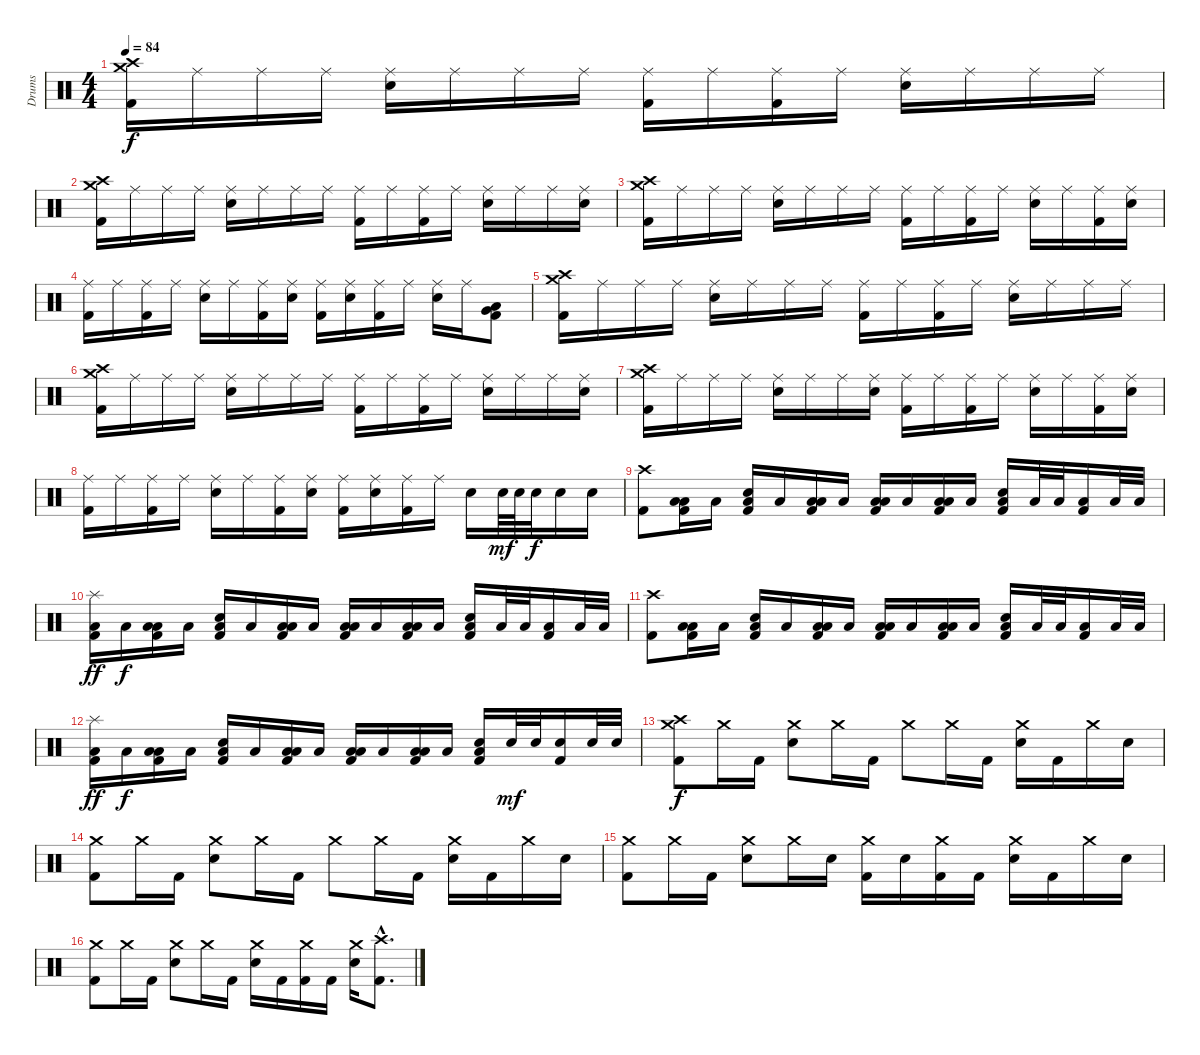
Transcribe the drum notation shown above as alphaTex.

\track ("Drums" "Drums") {instrument percussion}
\staff {score}
\articulation defaults
\ts (4 4)
\tempo 84
\clef neutral
\ks c
("Crash high (hit)" "Crash medium (hit)" "Kick (hit) 2").16{dy f} "Ride (middle)".16 "Ride (middle)".16 "Ride (middle)".16 ("Ride (middle)" "Snare (hit) 2").16 "Ride (middle)".16 "Ride (middle)".16 "Ride (middle)".16 ("Ride (middle)" "Kick (hit) 2").16 "Ride (middle)".16 ("Ride (middle)" "Kick (hit) 2").16 "Ride (middle)".16 ("Ride (middle)" "Snare (hit) 2").16 "Ride (middle)".16 "Ride (middle)".16 "Ride (middle)".16 |
("Crash high (hit)" "Crash medium (hit)" "Kick (hit) 2").16 "Ride (middle)".16 "Ride (middle)".16 "Ride (middle)".16 ("Ride (middle)" "Snare (hit) 2").16 "Ride (middle)".16 "Ride (middle)".16 "Ride (middle)".16 ("Ride (middle)" "Kick (hit) 2").16 "Ride (middle)".16 ("Ride (middle)" "Kick (hit) 2").16 "Ride (middle)".16 ("Ride (middle)" "Snare (hit) 2").16 "Ride (middle)".16 "Ride (middle)".16 ("Ride (middle)" "Snare (hit) 2").16 |
("Crash high (hit)" "Crash medium (hit)" "Kick (hit) 2").16 "Ride (middle)".16 "Ride (middle)".16 "Ride (middle)".16 ("Ride (middle)" "Snare (hit) 2").16 "Ride (middle)".16 "Ride (middle)".16 "Ride (middle)".16 ("Ride (middle)" "Kick (hit) 2").16 "Ride (middle)".16 ("Ride (middle)" "Kick (hit) 2").16 "Ride (middle)".16 ("Ride (middle)" "Snare (hit) 2").16 "Ride (middle)".16 ("Ride (middle)" "Kick (hit) 2").16 ("Ride (middle)" "Snare (hit) 2").16 |
("Ride (middle)" "Kick (hit) 2").16 "Ride (middle)".16 ("Ride (middle)" "Kick (hit) 2").16 "Ride (middle)".16 ("Ride (middle)" "Snare (hit) 2").16 "Ride (middle)".16 ("Ride (middle)" "Kick (hit) 2").16 ("Ride (middle)" "Snare (hit) 2").16 ("Ride (middle)" "Kick (hit) 2").16 ("Ride (middle)" "Snare (hit) 2").16 ("Ride (middle)" "Kick (hit) 2").16 "Ride (middle)".16 ("Ride (middle)" "Snare (hit) 2").16 "Ride (middle)".16 ("Very Low Tom (hit)" "Low Floor Tom (hit)" "Kick (hit) 2").8 |
("Crash high (hit)" "Crash medium (hit)" "Kick (hit) 2").16 "Ride (middle)".16 "Ride (middle)".16 "Ride (middle)".16 ("Ride (middle)" "Snare (hit) 2").16 "Ride (middle)".16 "Ride (middle)".16 "Ride (middle)".16 ("Ride (middle)" "Kick (hit) 2").16 "Ride (middle)".16 ("Ride (middle)" "Kick (hit) 2").16 "Ride (middle)".16 ("Ride (middle)" "Snare (hit) 2").16 "Ride (middle)".16 "Ride (middle)".16 "Ride (middle)".16 |
("Crash high (hit)" "Crash medium (hit)" "Kick (hit) 2").16 "Ride (middle)".16 "Ride (middle)".16 "Ride (middle)".16 ("Ride (middle)" "Snare (hit) 2").16 "Ride (middle)".16 "Ride (middle)".16 "Ride (middle)".16 ("Ride (middle)" "Kick (hit) 2").16 "Ride (middle)".16 ("Ride (middle)" "Kick (hit) 2").16 "Ride (middle)".16 ("Ride (middle)" "Snare (hit) 2").16 "Ride (middle)".16 "Ride (middle)".16 ("Ride (middle)" "Snare (hit) 2").16 |
("Crash high (hit)" "Crash medium (hit)" "Kick (hit) 2").16 "Ride (middle)".16 "Ride (middle)".16 "Ride (middle)".16 ("Ride (middle)" "Snare (hit) 2").16 "Ride (middle)".16 "Ride (middle)".16 ("Ride (middle)" "Snare (hit) 2").16 ("Ride (middle)" "Kick (hit) 2").16 "Ride (middle)".16 ("Ride (middle)" "Kick (hit) 2").16 "Ride (middle)".16 ("Ride (middle)" "Snare (hit) 2").16 "Ride (middle)".16 ("Ride (middle)" "Kick (hit) 2").16 ("Ride (middle)" "Snare (hit) 2").16 |
("Ride (middle)" "Kick (hit) 2").16 "Ride (middle)".16 ("Ride (middle)" "Kick (hit) 2").16 "Ride (middle)".16 ("Ride (middle)" "Snare (hit) 2").16 "Ride (middle)".16 ("Ride (middle)" "Kick (hit) 2").16 ("Ride (middle)" "Snare (hit) 2").16 ("Ride (middle)" "Kick (hit) 2").16 ("Ride (middle)" "Snare (hit) 2").16 ("Ride (middle)" "Kick (hit) 2").16 "Ride (middle)".16 "Snare (hit) 2".16 "Snare (hit) 2".64{dy mf} "Snare (hit) 2".64 "Snare (hit) 2".32{dy f} "Snare (hit) 2".16 "Snare (hit) 2".16 |
("Crash high (hit)" "Kick (hit) 2").8 ("Low Tom (hit)" "Low Floor Tom (hit)" "Kick (hit) 2").16 "Low Floor Tom (hit)".16 ("Snare (hit) 2" "Low Floor Tom (hit)" "Kick (hit) 2").16 "Low Floor Tom (hit)".16 ("Low Tom (hit)" "Low Floor Tom (hit)" "Kick (hit) 2").16 "Low Floor Tom (hit)".16 ("Low Tom (hit)" "Low Floor Tom (hit)" "Kick (hit) 2").16 "Low Floor Tom (hit)".16 ("Low Tom (hit)" "Low Floor Tom (hit)" "Kick (hit) 2").16 "Low Floor Tom (hit)".16 ("Snare (hit) 2" "Low Floor Tom (hit)" "Kick (hit) 2").16 "Low Tom (hit)".32 "Low Tom (hit)".32 ("Low Tom (hit)" "Kick (hit) 2").16 "Low Tom (hit)".32 "Low Tom (hit)".32 |
("Splash (hit)" "Low Floor Tom (hit)" "Kick (hit) 2").16{dy ff} "Low Floor Tom (hit)".16{dy f} ("Low Tom (hit)" "Low Floor Tom (hit)" "Kick (hit) 2").16 "Low Floor Tom (hit)".16 ("Snare (hit) 2" "Low Floor Tom (hit)" "Kick (hit) 2").16 "Low Floor Tom (hit)".16 ("Low Tom (hit)" "Low Floor Tom (hit)" "Kick (hit) 2").16 "Low Floor Tom (hit)".16 ("Low Tom (hit)" "Low Floor Tom (hit)" "Kick (hit) 2").16 "Low Floor Tom (hit)".16 ("Low Tom (hit)" "Low Floor Tom (hit)" "Kick (hit) 2").16 "Low Floor Tom (hit)".16 ("Snare (hit) 2" "Low Floor Tom (hit)" "Kick (hit) 2").16 "Low Tom (hit)".32 "Low Tom (hit)".32 ("Low Tom (hit)" "Kick (hit) 2").16 "Low Tom (hit)".32 "Low Tom (hit)".32 |
("Crash high (hit)" "Kick (hit) 2").8 ("Low Tom (hit)" "Low Floor Tom (hit)" "Kick (hit) 2").16 "Low Floor Tom (hit)".16 ("Snare (hit) 2" "Low Floor Tom (hit)" "Kick (hit) 2").16 "Low Floor Tom (hit)".16 ("Low Tom (hit)" "Low Floor Tom (hit)" "Kick (hit) 2").16 "Low Floor Tom (hit)".16 ("Low Tom (hit)" "Low Floor Tom (hit)" "Kick (hit) 2").16 "Low Floor Tom (hit)".16 ("Low Tom (hit)" "Low Floor Tom (hit)" "Kick (hit) 2").16 "Low Floor Tom (hit)".16 ("Snare (hit) 2" "Low Floor Tom (hit)" "Kick (hit) 2").16 "Low Tom (hit)".32 "Low Tom (hit)".32 ("Low Tom (hit)" "Kick (hit) 2").16 "Low Tom (hit)".32 "Low Tom (hit)".32 |
("Splash (hit)" "Low Floor Tom (hit)" "Kick (hit) 2").16{dy ff} "Low Floor Tom (hit)".16{dy f} ("Low Tom (hit)" "Low Floor Tom (hit)" "Kick (hit) 2").16 "Low Floor Tom (hit)".16 ("Snare (hit) 2" "Low Floor Tom (hit)" "Kick (hit) 2").16 "Low Floor Tom (hit)".16 ("Low Tom (hit)" "Low Floor Tom (hit)" "Kick (hit) 2").16 "Low Floor Tom (hit)".16 ("Low Tom (hit)" "Low Floor Tom (hit)" "Kick (hit) 2").16 "Low Floor Tom (hit)".16 ("Low Tom (hit)" "Low Floor Tom (hit)" "Kick (hit) 2").16 "Low Floor Tom (hit)".16 ("Snare (hit) 2" "Low Floor Tom (hit)" "Kick (hit) 2").16 "Snare (hit) 2".32{dy mf} "Snare (hit) 2".32 ("Snare (hit) 2" "Kick (hit) 2").16 "Snare (hit) 2".32 "Snare (hit) 2".32 |
("Crash high (hit)" "Crash medium (hit)" "Kick (hit) 2").8{dy f} "Crash medium (hit)".16 "Kick (hit) 2".16 ("Crash medium (hit)" "Snare (hit) 2").8 "Crash medium (hit)".16 "Kick (hit) 2".16 "Crash medium (hit)".8 "Crash medium (hit)".16 "Kick (hit) 2".16 ("Crash medium (hit)" "Snare (hit) 2").16 "Kick (hit) 2".16 "Crash medium (hit)".16 "Snare (hit) 2".16 |
("Crash medium (hit)" "Kick (hit) 2").8 "Crash medium (hit)".16 "Kick (hit) 2".16 ("Crash medium (hit)" "Snare (hit) 2").8 "Crash medium (hit)".16 "Kick (hit) 2".16 "Crash medium (hit)".8 "Crash medium (hit)".16 "Kick (hit) 2".16 ("Crash medium (hit)" "Snare (hit) 2").16 "Kick (hit) 2".16 "Crash medium (hit)".16 "Snare (hit) 2".16 |
("Crash medium (hit)" "Kick (hit) 2").8 "Crash medium (hit)".16 "Kick (hit) 2".16 ("Crash medium (hit)" "Snare (hit) 2").8 "Crash medium (hit)".16 "Snare (hit) 2".16 ("Crash medium (hit)" "Kick (hit) 2").16 "Snare (hit) 2".16 ("Crash medium (hit)" "Kick (hit) 2").16 "Kick (hit) 2".16 ("Crash medium (hit)" "Snare (hit) 2").16 "Kick (hit) 2".16 "Crash medium (hit)".16 "Snare (hit) 2".16 |
("Crash medium (hit)" "Kick (hit) 2").8 "Crash medium (hit)".16 "Kick (hit) 2".16 ("Crash medium (hit)" "Snare (hit) 2").8 "Crash medium (hit)".16 "Kick (hit) 2".16 ("Crash medium (hit)" "Snare (hit) 2").16 "Kick (hit) 2".16 ("Crash medium (hit)" "Kick (hit) 2").16 "Kick (hit) 2".16 ("Crash medium (hit)" "Snare (hit) 2").16 ("Crash high (hit)"{hac} "Kick (hit) 2"{hac}).8{d}
